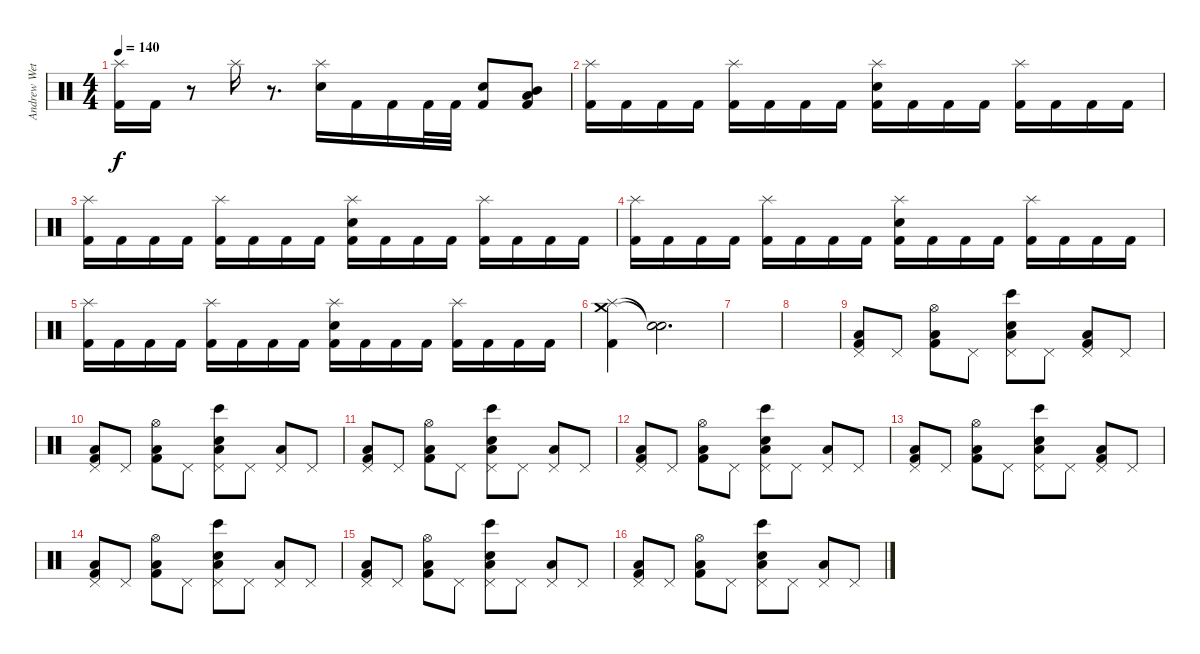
\track ("Andrew Wetzel" "Andrew Wet") {instrument percussion}
\staff {score}
\articulation defaults
\ts (4 4)
\tempo 140
\clef neutral
\ks c
("Splash (hit)" "Kick (hit) 2").16{dy f} "Kick (hit) 2".16 r.8 "Splash (hit)".16 r.8{d} ("Splash (hit)" "Electric Snare (hit)").16 "Kick (hit) 2".16 "Kick (hit) 2".16 "Kick (hit) 2".32 "Kick (hit) 2".32 ("Electric Snare (hit)" "Kick (hit) 2").8 ("Low Tom (hit)" "Mid Tom (hit)" "Kick (hit) 2").8 |
("Splash (hit)" "Kick (hit) 2").16 "Kick (hit) 2".16 "Kick (hit) 2".16 "Kick (hit) 2".16 ("Splash (hit)" "Kick (hit) 2").16 "Kick (hit) 2".16 "Kick (hit) 2".16 "Kick (hit) 2".16 ("Splash (hit)" "Electric Snare (hit)" "Kick (hit) 2").16 "Kick (hit) 2".16 "Kick (hit) 2".16 "Kick (hit) 2".16 ("Splash (hit)" "Kick (hit) 2").16 "Kick (hit) 2".16 "Kick (hit) 2".16 "Kick (hit) 2".16 |
("Splash (hit)" "Kick (hit) 2").16 "Kick (hit) 2".16 "Kick (hit) 2".16 "Kick (hit) 2".16 ("Splash (hit)" "Kick (hit) 2").16 "Kick (hit) 2".16 "Kick (hit) 2".16 "Kick (hit) 2".16 ("Splash (hit)" "Electric Snare (hit)" "Kick (hit) 2").16 "Kick (hit) 2".16 "Kick (hit) 2".16 "Kick (hit) 2".16 ("Splash (hit)" "Kick (hit) 2").16 "Kick (hit) 2".16 "Kick (hit) 2".16 "Kick (hit) 2".16 |
("Splash (hit)" "Kick (hit) 2").16 "Kick (hit) 2".16 "Kick (hit) 2".16 "Kick (hit) 2".16 ("Splash (hit)" "Kick (hit) 2").16 "Kick (hit) 2".16 "Kick (hit) 2".16 "Kick (hit) 2".16 ("Splash (hit)" "Electric Snare (hit)" "Kick (hit) 2").16 "Kick (hit) 2".16 "Kick (hit) 2".16 "Kick (hit) 2".16 ("Splash (hit)" "Kick (hit) 2").16 "Kick (hit) 2".16 "Kick (hit) 2".16 "Kick (hit) 2".16 |
("Splash (hit)" "Kick (hit) 2").16 "Kick (hit) 2".16 "Kick (hit) 2".16 "Kick (hit) 2".16 ("Splash (hit)" "Kick (hit) 2").16 "Kick (hit) 2".16 "Kick (hit) 2".16 "Kick (hit) 2".16 ("Splash (hit)" "Electric Snare (hit)" "Kick (hit) 2").16 "Kick (hit) 2".16 "Kick (hit) 2".16 "Kick (hit) 2".16 ("Splash (hit)" "Kick (hit) 2").16 "Kick (hit) 2".16 "Kick (hit) 2".16 "Kick (hit) 2".16 |
("Crash medium (hit)" "Splash (hit)" "Kick (hit) 2").4 ("Snare (hit)"{t} "Snare (hit)"{t}).2{d} |
|
|
("Pedal Hi-Hat (hit)" "Kick (hit) 2" "Low Floor Tom (hit)").8{volume 4} "Pedal Hi-Hat (hit)".8 ("Hi-Hat (open)" "Kick (hit) 2" "Low Floor Tom (hit)").8 "Pedal Hi-Hat (hit)".8 ("Pedal Hi-Hat (hit)" "Hand Clap (hit)" "Bongo High (hit)" "Low Floor Tom (hit)").8 "Pedal Hi-Hat (hit)".8 ("Pedal Hi-Hat (hit)" "Kick (hit) 2" "Low Floor Tom (hit)").8 "Pedal Hi-Hat (hit)".8 |
("Pedal Hi-Hat (hit)" "Kick (hit) 2" "Low Floor Tom (hit)").8 "Pedal Hi-Hat (hit)".8 ("Hi-Hat (open)" "Kick (hit) 2" "Low Floor Tom (hit)").8 "Pedal Hi-Hat (hit)".8 ("Pedal Hi-Hat (hit)" "Hand Clap (hit)" "Bongo High (hit)" "Low Floor Tom (hit)").8 "Pedal Hi-Hat (hit)".8 ("Pedal Hi-Hat (hit)" "Low Floor Tom (hit)").8 "Pedal Hi-Hat (hit)".8 |
("Pedal Hi-Hat (hit)" "Kick (hit) 2" "Low Floor Tom (hit)").8 "Pedal Hi-Hat (hit)".8 ("Hi-Hat (open)" "Kick (hit) 2" "Low Floor Tom (hit)").8 "Pedal Hi-Hat (hit)".8 ("Pedal Hi-Hat (hit)" "Hand Clap (hit)" "Bongo High (hit)" "Low Floor Tom (hit)").8 "Pedal Hi-Hat (hit)".8 ("Pedal Hi-Hat (hit)" "Low Floor Tom (hit)").8 "Pedal Hi-Hat (hit)".8 |
("Pedal Hi-Hat (hit)" "Kick (hit) 2" "Low Floor Tom (hit)").8 "Pedal Hi-Hat (hit)".8 ("Hi-Hat (open)" "Kick (hit) 2" "Low Floor Tom (hit)").8 "Pedal Hi-Hat (hit)".8 ("Pedal Hi-Hat (hit)" "Hand Clap (hit)" "Bongo High (hit)" "Low Floor Tom (hit)").8 "Pedal Hi-Hat (hit)".8 ("Pedal Hi-Hat (hit)" "Low Floor Tom (hit)").8 "Pedal Hi-Hat (hit)".8 |
("Pedal Hi-Hat (hit)" "Kick (hit) 2" "Low Floor Tom (hit)").8{volume 8} "Pedal Hi-Hat (hit)".8 ("Hi-Hat (open)" "Kick (hit) 2" "Low Floor Tom (hit)").8 "Pedal Hi-Hat (hit)".8 ("Pedal Hi-Hat (hit)" "Hand Clap (hit)" "Bongo High (hit)" "Low Floor Tom (hit)").8 "Pedal Hi-Hat (hit)".8 ("Pedal Hi-Hat (hit)" "Kick (hit) 2" "Low Floor Tom (hit)").8 "Pedal Hi-Hat (hit)".8 |
("Pedal Hi-Hat (hit)" "Kick (hit) 2" "Low Floor Tom (hit)").8 "Pedal Hi-Hat (hit)".8 ("Hi-Hat (open)" "Kick (hit) 2" "Low Floor Tom (hit)").8 "Pedal Hi-Hat (hit)".8 ("Pedal Hi-Hat (hit)" "Hand Clap (hit)" "Bongo High (hit)" "Low Floor Tom (hit)").8 "Pedal Hi-Hat (hit)".8 ("Pedal Hi-Hat (hit)" "Low Floor Tom (hit)").8 "Pedal Hi-Hat (hit)".8 |
("Pedal Hi-Hat (hit)" "Kick (hit) 2" "Low Floor Tom (hit)").8 "Pedal Hi-Hat (hit)".8 ("Hi-Hat (open)" "Kick (hit) 2" "Low Floor Tom (hit)").8 "Pedal Hi-Hat (hit)".8 ("Pedal Hi-Hat (hit)" "Hand Clap (hit)" "Bongo High (hit)" "Low Floor Tom (hit)").8 "Pedal Hi-Hat (hit)".8 ("Pedal Hi-Hat (hit)" "Low Floor Tom (hit)").8 "Pedal Hi-Hat (hit)".8 |
("Pedal Hi-Hat (hit)" "Kick (hit) 2" "Low Floor Tom (hit)").8 "Pedal Hi-Hat (hit)".8 ("Hi-Hat (open)" "Kick (hit) 2" "Low Floor Tom (hit)").8 "Pedal Hi-Hat (hit)".8 ("Pedal Hi-Hat (hit)" "Hand Clap (hit)" "Bongo High (hit)" "Low Floor Tom (hit)").8 "Pedal Hi-Hat (hit)".8 ("Pedal Hi-Hat (hit)" "Low Floor Tom (hit)").8 "Pedal Hi-Hat (hit)".8
